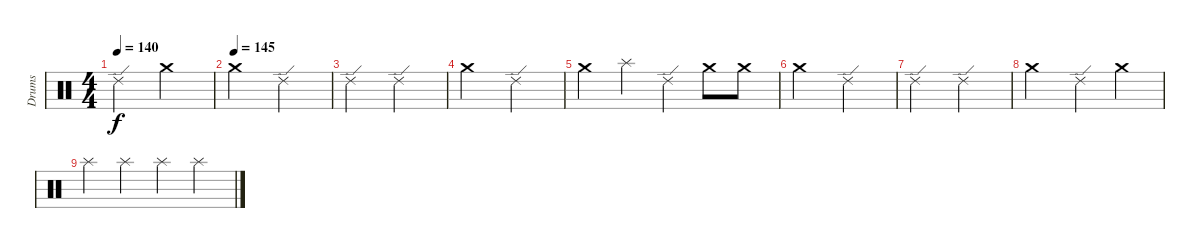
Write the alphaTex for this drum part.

\track ("Drums" "Drums") {instrument percussion}
\staff {score}
\articulation defaults
\ts (4 4)
\tempo 140
\clef neutral
\ks c "Ride (edge) 2".2{dy f} "Crash medium (hit)".2
|
\tempo (145)
"Crash medium (hit)".2 "Ride (edge) 2".2 |
"Ride (edge) 2".2 "Ride (edge) 2".2 |
"Crash medium (hit)".2 "Ride (edge) 2".2 |
"Crash medium (hit)".4 "Splash (hit)".4 "Ride (edge) 2".4 "Crash medium (hit)".8 "Crash medium (hit)".8 |
"Crash medium (hit)".2 "Ride (edge) 2".2 |
"Ride (edge) 2".2 "Ride (edge) 2".2 |
"Crash medium (hit)".2 "Ride (edge) 2".4 "Crash medium (hit)".4 |
"Splash (hit)".4 "Splash (hit)".4 "Splash (hit)".4 "Splash (hit)".4
